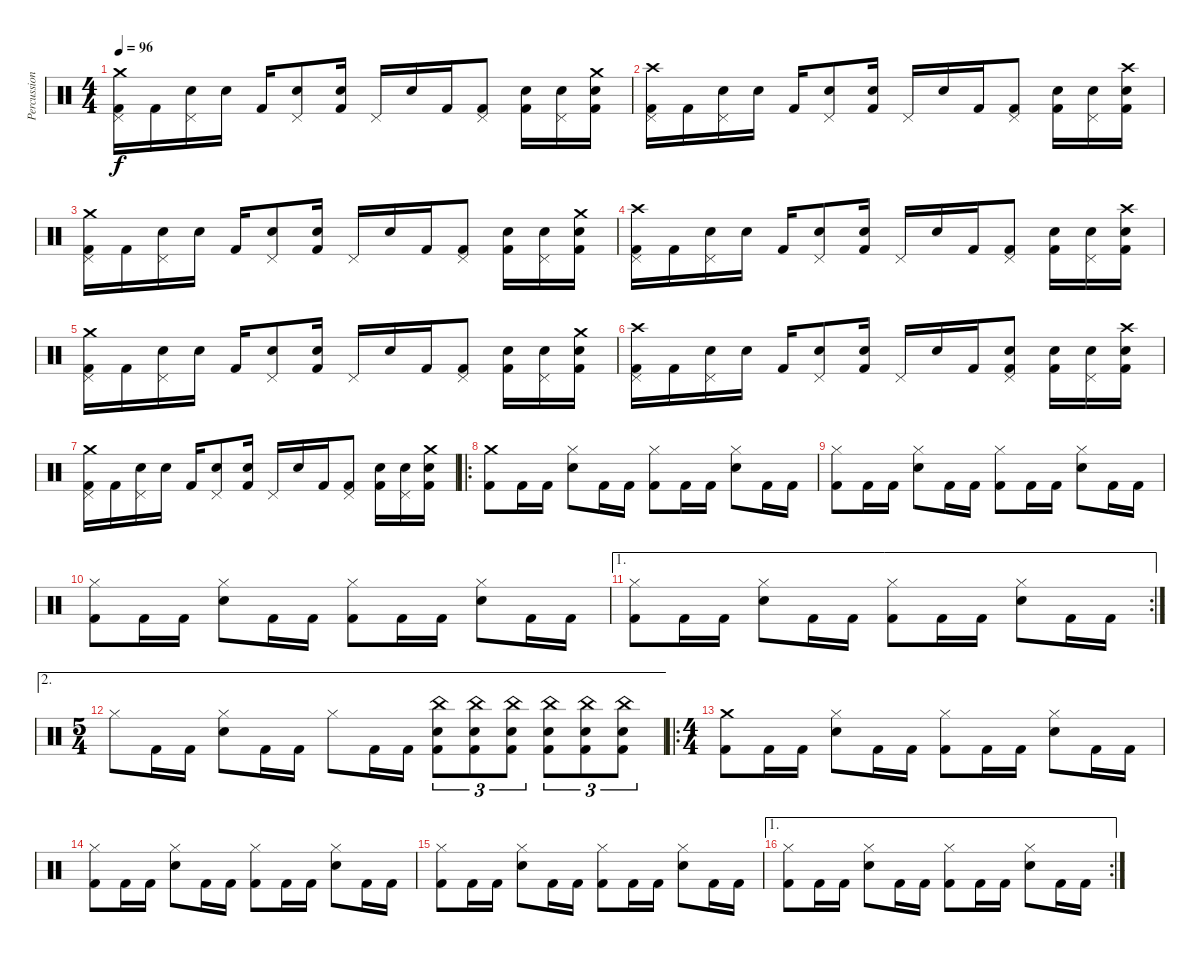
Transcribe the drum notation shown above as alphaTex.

\track ("Percussion" "Percussion") {instrument percussion}
\staff {score}
\articulation defaults
\ts (4 4)
\tempo 96
\clef neutral
\ks c
("Crash medium (hit)" "Pedal Hi-Hat (hit)" "Kick (hit) 2").16{dy f} "Kick (hit) 2".16 ("Pedal Hi-Hat (hit)" "Electric Snare (hit)").16 "Snare (hit)".16 "Kick (hit) 2".16 ("Pedal Hi-Hat (hit)" "Electric Snare (hit)").8 ("Electric Snare (hit)" "Kick (hit) 2").16 "Pedal Hi-Hat (hit)".16 "Electric Snare (hit)".16 "Kick (hit) 2".16 ("Pedal Hi-Hat (hit)" "Kick (hit) 2").8 ("Electric Snare (hit)" "Kick (hit) 2").16 ("Pedal Hi-Hat (hit)" "Electric Snare (hit)").16 ("Crash medium (hit)" "Electric Snare (hit)" "Kick (hit) 2").16 |
("Crash high (hit)" "Pedal Hi-Hat (hit)" "Kick (hit) 2").16 "Kick (hit) 2".16 ("Pedal Hi-Hat (hit)" "Electric Snare (hit)").16 "Snare (hit)".16 "Kick (hit) 2".16 ("Pedal Hi-Hat (hit)" "Electric Snare (hit)").8 ("Electric Snare (hit)" "Kick (hit) 2").16 "Pedal Hi-Hat (hit)".16 "Electric Snare (hit)".16 "Kick (hit) 2".16 ("Pedal Hi-Hat (hit)" "Kick (hit) 2").8 ("Electric Snare (hit)" "Kick (hit) 2").16 ("Pedal Hi-Hat (hit)" "Electric Snare (hit)").16 ("Crash high (hit)" "Electric Snare (hit)" "Kick (hit) 2").16 |
("Crash medium (hit)" "Pedal Hi-Hat (hit)" "Kick (hit) 2").16 "Kick (hit) 2".16 ("Pedal Hi-Hat (hit)" "Electric Snare (hit)").16 "Snare (hit)".16 "Kick (hit) 2".16 ("Pedal Hi-Hat (hit)" "Electric Snare (hit)").8 ("Electric Snare (hit)" "Kick (hit) 2").16 "Pedal Hi-Hat (hit)".16 "Electric Snare (hit)".16 "Kick (hit) 2".16 ("Pedal Hi-Hat (hit)" "Kick (hit) 2").8 ("Electric Snare (hit)" "Kick (hit) 2").16 ("Pedal Hi-Hat (hit)" "Electric Snare (hit)").16 ("Crash medium (hit)" "Electric Snare (hit)" "Kick (hit) 2").16 |
("Crash high (hit)" "Pedal Hi-Hat (hit)" "Kick (hit) 2").16 "Kick (hit) 2".16 ("Pedal Hi-Hat (hit)" "Electric Snare (hit)").16 "Snare (hit)".16 "Kick (hit) 2".16 ("Pedal Hi-Hat (hit)" "Electric Snare (hit)").8 ("Electric Snare (hit)" "Kick (hit) 2").16 "Pedal Hi-Hat (hit)".16 "Electric Snare (hit)".16 "Kick (hit) 2".16 ("Pedal Hi-Hat (hit)" "Kick (hit) 2").8 ("Electric Snare (hit)" "Kick (hit) 2").16 ("Pedal Hi-Hat (hit)" "Electric Snare (hit)").16 ("Crash high (hit)" "Electric Snare (hit)" "Kick (hit) 2").16 |
("Crash medium (hit)" "Pedal Hi-Hat (hit)" "Kick (hit) 2").16 "Kick (hit) 2".16 ("Pedal Hi-Hat (hit)" "Electric Snare (hit)").16 "Snare (hit)".16 "Kick (hit) 2".16 ("Pedal Hi-Hat (hit)" "Electric Snare (hit)").8 ("Electric Snare (hit)" "Kick (hit) 2").16 "Pedal Hi-Hat (hit)".16 "Electric Snare (hit)".16 "Kick (hit) 2".16 ("Pedal Hi-Hat (hit)" "Kick (hit) 2").8 ("Electric Snare (hit)" "Kick (hit) 2").16 ("Pedal Hi-Hat (hit)" "Electric Snare (hit)").16 ("Crash medium (hit)" "Electric Snare (hit)" "Kick (hit) 2").16 |
("Crash high (hit)" "Pedal Hi-Hat (hit)" "Kick (hit) 2").16 "Kick (hit) 2".16 ("Pedal Hi-Hat (hit)" "Electric Snare (hit)").16 "Snare (hit)".16 "Kick (hit) 2".16 ("Pedal Hi-Hat (hit)" "Electric Snare (hit)").8 ("Electric Snare (hit)" "Kick (hit) 2").16 "Pedal Hi-Hat (hit)".16 "Electric Snare (hit)".16 "Kick (hit) 2".16 ("Snare (hit)" "Pedal Hi-Hat (hit)" "Kick (hit) 2").8 ("Electric Snare (hit)" "Kick (hit) 2").16 ("Pedal Hi-Hat (hit)" "Electric Snare (hit)").16 ("Crash high (hit)" "Electric Snare (hit)" "Kick (hit) 2").16 |
("Crash medium (hit)" "Pedal Hi-Hat (hit)" "Kick (hit) 2").16 "Kick (hit) 2".16 ("Pedal Hi-Hat (hit)" "Electric Snare (hit)").16 "Snare (hit)".16 "Kick (hit) 2".16 ("Pedal Hi-Hat (hit)" "Electric Snare (hit)").8 ("Electric Snare (hit)" "Kick (hit) 2").16 "Pedal Hi-Hat (hit)".16 "Electric Snare (hit)".16 "Kick (hit) 2".16 ("Pedal Hi-Hat (hit)" "Kick (hit) 2").8 ("Electric Snare (hit)" "Kick (hit) 2").16 ("Pedal Hi-Hat (hit)" "Electric Snare (hit)").16 ("Crash medium (hit)" "Electric Snare (hit)" "Kick (hit) 2").16 |
\ro
("Crash medium (hit)" "Kick (hit) 2").8 "Kick (hit) 2".16 "Kick (hit) 2".16 ("Electric Snare (hit)" "Hi-Hat (closed)").8 "Kick (hit) 2".16 "Kick (hit) 2".16 ("Hi-Hat (closed)" "Kick (hit) 2").8 "Kick (hit) 2".16 "Kick (hit) 2".16 ("Electric Snare (hit)" "Hi-Hat (closed)").8 "Kick (hit) 2".16 "Kick (hit) 2".16 |
("Hi-Hat (closed)" "Kick (hit) 2").8 "Kick (hit) 2".16 "Kick (hit) 2".16 ("Electric Snare (hit)" "Hi-Hat (closed)").8 "Kick (hit) 2".16 "Kick (hit) 2".16 ("Hi-Hat (closed)" "Kick (hit) 2").8 "Kick (hit) 2".16 "Kick (hit) 2".16 ("Electric Snare (hit)" "Hi-Hat (closed)").8 "Kick (hit) 2".16 "Kick (hit) 2".16 |
("Hi-Hat (closed)" "Kick (hit) 2").8 "Kick (hit) 2".16 "Kick (hit) 2".16 ("Electric Snare (hit)" "Hi-Hat (closed)").8 "Kick (hit) 2".16 "Kick (hit) 2".16 ("Hi-Hat (closed)" "Kick (hit) 2").8 "Kick (hit) 2".16 "Kick (hit) 2".16 ("Electric Snare (hit)" "Hi-Hat (closed)").8 "Kick (hit) 2".16 "Kick (hit) 2".16 |
\ae 1
\rc 2
("Hi-Hat (closed)" "Kick (hit) 2").8 "Kick (hit) 2".16 "Kick (hit) 2".16 ("Electric Snare (hit)" "Hi-Hat (closed)").8 "Kick (hit) 2".16 "Kick (hit) 2".16 ("Hi-Hat (closed)" "Kick (hit) 2").8 "Kick (hit) 2".16 "Kick (hit) 2".16 ("Electric Snare (hit)" "Hi-Hat (closed)").8 "Kick (hit) 2".16 "Kick (hit) 2".16 |
\ae 2
\ts (5 4)
"Hi-Hat (closed)".8 "Kick (hit) 2".16 "Kick (hit) 2".16 ("Hi-Hat (closed)" "Electric Snare (hit)").8 "Kick (hit) 2".16 "Kick (hit) 2".16 "Hi-Hat (closed)".8 "Kick (hit) 2".16 "Kick (hit) 2".16 ("China (hit)" "Electric Snare (hit)" "Kick (hit) 2").8{tu (3 2)} ("China (hit)" "Electric Snare (hit)" "Kick (hit) 2").8{tu (3 2)} ("China (hit)" "Electric Snare (hit)" "Kick (hit) 2").8{tu (3 2)} ("China (hit)" "Electric Snare (hit)" "Kick (hit) 2").8{tu (3 2)} ("China (hit)" "Electric Snare (hit)" "Kick (hit) 2").8{tu (3 2)} ("China (hit)" "Electric Snare (hit)" "Kick (hit) 2").8{tu (3 2)} |
\ro
\ts (4 4)
("Crash medium (hit)" "Kick (hit) 2").8 "Kick (hit) 2".16 "Kick (hit) 2".16 ("Electric Snare (hit)" "Hi-Hat (closed)").8 "Kick (hit) 2".16 "Kick (hit) 2".16 ("Hi-Hat (closed)" "Kick (hit) 2").8 "Kick (hit) 2".16 "Kick (hit) 2".16 ("Electric Snare (hit)" "Hi-Hat (closed)").8 "Kick (hit) 2".16 "Kick (hit) 2".16 |
("Hi-Hat (closed)" "Kick (hit) 2").8 "Kick (hit) 2".16 "Kick (hit) 2".16 ("Electric Snare (hit)" "Hi-Hat (closed)").8 "Kick (hit) 2".16 "Kick (hit) 2".16 ("Hi-Hat (closed)" "Kick (hit) 2").8 "Kick (hit) 2".16 "Kick (hit) 2".16 ("Electric Snare (hit)" "Hi-Hat (closed)").8 "Kick (hit) 2".16 "Kick (hit) 2".16 |
("Hi-Hat (closed)" "Kick (hit) 2").8 "Kick (hit) 2".16 "Kick (hit) 2".16 ("Electric Snare (hit)" "Hi-Hat (closed)").8 "Kick (hit) 2".16 "Kick (hit) 2".16 ("Hi-Hat (closed)" "Kick (hit) 2").8 "Kick (hit) 2".16 "Kick (hit) 2".16 ("Electric Snare (hit)" "Hi-Hat (closed)").8 "Kick (hit) 2".16 "Kick (hit) 2".16 |
\ae 1
\rc 2
("Hi-Hat (closed)" "Kick (hit) 2").8 "Kick (hit) 2".16 "Kick (hit) 2".16 ("Electric Snare (hit)" "Hi-Hat (closed)").8 "Kick (hit) 2".16 "Kick (hit) 2".16 ("Hi-Hat (closed)" "Kick (hit) 2").8 "Kick (hit) 2".16 "Kick (hit) 2".16 ("Electric Snare (hit)" "Hi-Hat (closed)").8 "Kick (hit) 2".16 "Kick (hit) 2".16
